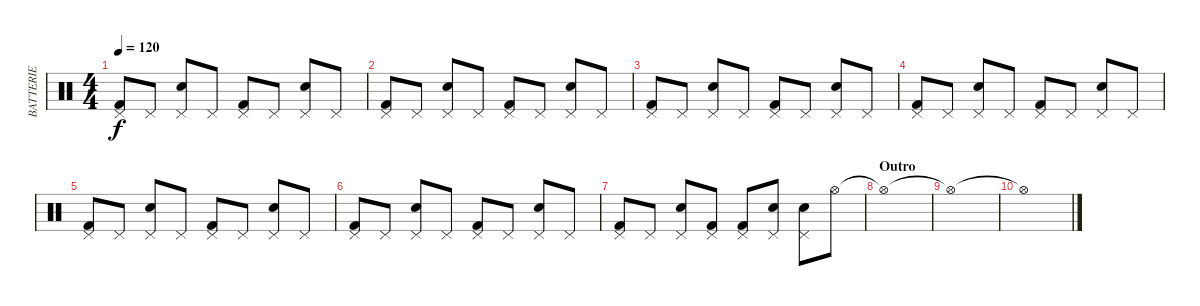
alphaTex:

\track ("BATTERIE" "BATTERIE") {instrument percussion}
\staff {score}
\articulation defaults
\ts (4 4)
\tempo 120
\clef neutral
\ks c
("Pedal Hi-Hat (hit)" "Kick (hit) 2").8{dy f} "Pedal Hi-Hat (hit)".8 ("Pedal Hi-Hat (hit)" "Snare (hit) 2").8 "Pedal Hi-Hat (hit)".8 ("Pedal Hi-Hat (hit)" "Kick (hit) 2").8 "Pedal Hi-Hat (hit)".8 ("Pedal Hi-Hat (hit)" "Snare (hit) 2").8 "Pedal Hi-Hat (hit)".8 |
("Pedal Hi-Hat (hit)" "Kick (hit) 2").8 "Pedal Hi-Hat (hit)".8 ("Pedal Hi-Hat (hit)" "Snare (hit) 2").8 "Pedal Hi-Hat (hit)".8 ("Pedal Hi-Hat (hit)" "Kick (hit) 2").8 "Pedal Hi-Hat (hit)".8 ("Pedal Hi-Hat (hit)" "Snare (hit) 2").8 "Pedal Hi-Hat (hit)".8 |
("Pedal Hi-Hat (hit)" "Kick (hit) 2").8 "Pedal Hi-Hat (hit)".8 ("Pedal Hi-Hat (hit)" "Snare (hit) 2").8 "Pedal Hi-Hat (hit)".8 ("Pedal Hi-Hat (hit)" "Kick (hit) 2").8 "Pedal Hi-Hat (hit)".8 ("Pedal Hi-Hat (hit)" "Snare (hit) 2").8 "Pedal Hi-Hat (hit)".8 |
("Pedal Hi-Hat (hit)" "Kick (hit) 2").8 "Pedal Hi-Hat (hit)".8 ("Pedal Hi-Hat (hit)" "Snare (hit) 2").8 "Pedal Hi-Hat (hit)".8 ("Pedal Hi-Hat (hit)" "Kick (hit) 2").8 "Pedal Hi-Hat (hit)".8 ("Pedal Hi-Hat (hit)" "Snare (hit) 2").8 "Pedal Hi-Hat (hit)".8 |
("Pedal Hi-Hat (hit)" "Kick (hit) 2").8 "Pedal Hi-Hat (hit)".8 ("Pedal Hi-Hat (hit)" "Snare (hit) 2").8 "Pedal Hi-Hat (hit)".8 ("Pedal Hi-Hat (hit)" "Kick (hit) 2").8 "Pedal Hi-Hat (hit)".8 ("Pedal Hi-Hat (hit)" "Snare (hit) 2").8 "Pedal Hi-Hat (hit)".8 |
("Pedal Hi-Hat (hit)" "Kick (hit) 2").8 "Pedal Hi-Hat (hit)".8 ("Pedal Hi-Hat (hit)" "Snare (hit) 2").8 "Pedal Hi-Hat (hit)".8 ("Pedal Hi-Hat (hit)" "Kick (hit) 2").8 "Pedal Hi-Hat (hit)".8 ("Pedal Hi-Hat (hit)" "Snare (hit) 2").8 "Pedal Hi-Hat (hit)".8 |
("Pedal Hi-Hat (hit)" "Kick (hit) 2").8 "Pedal Hi-Hat (hit)".8 ("Pedal Hi-Hat (hit)" "Snare (hit) 2").8 ("Pedal Hi-Hat (hit)" "Kick (hit) 2").8 ("Pedal Hi-Hat (hit)" "Kick (hit) 2").8 ("Pedal Hi-Hat (hit)" "Snare (hit) 2").8 ("Pedal Hi-Hat (hit)" "Snare (hit) 2").8 "Hi-Hat (open)".8 |
\section ("" "Outro")
"Hi-Hat (open)"{t}.1 |
"Hi-Hat (open)"{t}.1 |
"Hi-Hat (open)"{t}.1
